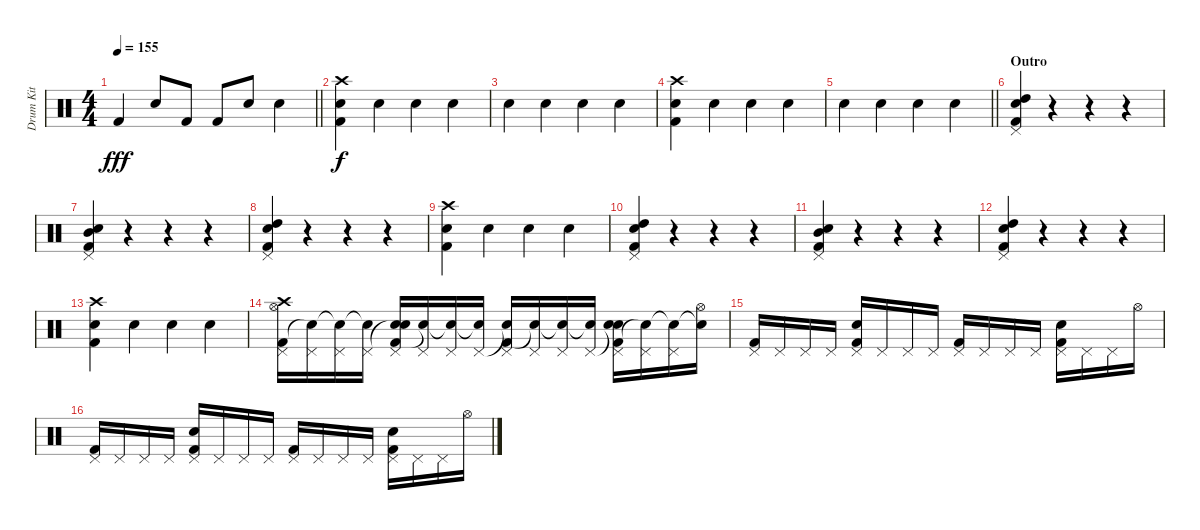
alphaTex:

\track ("Drum Kit" "Drum Kit") {instrument percussion}
\staff {score}
\articulation defaults
\ts (4 4)
\tempo 155
\clef neutral
\barLineRight lightlight
\ks c "Kick (hit) 2".4{dy fff} "Snare (hit) 2".8 "Kick (hit) 2".8 "Kick (hit) 2".8 "Snare (hit) 2".8 "Snare (hit) 2".4
|
("Crash high (hit)" "Kick (hit) 2" "Snare (hit) 2").4{dy f} "Snare (hit) 2".4 "Snare (hit) 2".4 "Snare (hit) 2".4 |
"Snare (hit) 2".4 "Snare (hit) 2".4 "Snare (hit) 2".4 "Snare (hit) 2".4 |
("Crash high (hit)" "Kick (hit) 2" "Snare (hit) 2").4 "Snare (hit) 2".4 "Snare (hit) 2".4 "Snare (hit) 2".4 |
\barLineRight lightlight "Snare (hit) 2".4 "Snare (hit) 2".4 "Snare (hit) 2".4 "Snare (hit) 2".4
|
\section ("" "Outro")
("Kick (hit) 2" "Electric Snare (hit)" "High Tom (hit)" "Pedal Hi-Hat (hit)").4 r.4 r.4 r.4 |
("Kick (hit) 2" "Electric Snare (hit)" "Mid Tom (hit)" "Pedal Hi-Hat (hit)").4 r.4 r.4 r.4 |
("Kick (hit) 2" "Electric Snare (hit)" "High Tom (hit)" "Pedal Hi-Hat (hit)").4 r.4 r.4 r.4 |
("Crash high (hit)" "Kick (hit) 2" "Snare (hit) 2").4 "Snare (hit) 2".4 "Snare (hit) 2".4 "Snare (hit) 2".4 |
("Kick (hit) 2" "Electric Snare (hit)" "High Tom (hit)" "Pedal Hi-Hat (hit)").4 r.4 r.4 r.4 |
("Kick (hit) 2" "Electric Snare (hit)" "Mid Tom (hit)" "Pedal Hi-Hat (hit)").4 r.4 r.4 r.4 |
("Kick (hit) 2" "Electric Snare (hit)" "High Tom (hit)" "Pedal Hi-Hat (hit)").4 r.4 r.4 r.4 |
("Crash high (hit)" "Kick (hit) 2" "Snare (hit) 2").4 "Snare (hit) 2".4 "Snare (hit) 2".4 "Snare (hit) 2".4 |
("Kick (hit) 2" "Crash high (hit)" "Hi-Hat (open)" "Pedal Hi-Hat (hit)").16 ("Snare (hit)"{t} "Pedal Hi-Hat (hit)").16 ("Snare (hit)"{t} "Pedal Hi-Hat (hit)").16 ("Snare (hit)"{t} "Pedal Hi-Hat (hit)").16 ("Kick (hit) 2" "Snare (hit)"{t} "Electric Snare (hit)" "Pedal Hi-Hat (hit)").16 ("Snare (hit)"{t} "Pedal Hi-Hat (hit)").16 ("Snare (hit)"{t} "Pedal Hi-Hat (hit)").16 ("Snare (hit)"{t} "Pedal Hi-Hat (hit)").16 ("Kick (hit) 2" "Snare (hit)"{t} "Pedal Hi-Hat (hit)").16 ("Snare (hit)"{t} "Pedal Hi-Hat (hit)").16 ("Snare (hit)"{t} "Pedal Hi-Hat (hit)").16 ("Snare (hit)"{t} "Pedal Hi-Hat (hit)").16 ("Kick (hit) 2" "Snare (hit)"{t} "Electric Snare (hit)" "Pedal Hi-Hat (hit)").16 ("Snare (hit)"{t} "Pedal Hi-Hat (hit)").16 ("Snare (hit)"{t} "Pedal Hi-Hat (hit)").16 ("Snare (hit)"{t} "Hi-Hat (open)").16 |
("Kick (hit) 2" "Pedal Hi-Hat (hit)").16 "Pedal Hi-Hat (hit)".16 "Pedal Hi-Hat (hit)".16 "Pedal Hi-Hat (hit)".16 ("Kick (hit) 2" "Electric Snare (hit)" "Pedal Hi-Hat (hit)").16 "Pedal Hi-Hat (hit)".16 "Pedal Hi-Hat (hit)".16 "Pedal Hi-Hat (hit)".16 ("Kick (hit) 2" "Pedal Hi-Hat (hit)").16 "Pedal Hi-Hat (hit)".16 "Pedal Hi-Hat (hit)".16 "Pedal Hi-Hat (hit)".16 ("Kick (hit) 2" "Electric Snare (hit)" "Pedal Hi-Hat (hit)").16 "Pedal Hi-Hat (hit)".16 "Pedal Hi-Hat (hit)".16 "Hi-Hat (open)".16 |
("Kick (hit) 2" "Pedal Hi-Hat (hit)").16 "Pedal Hi-Hat (hit)".16 "Pedal Hi-Hat (hit)".16 "Pedal Hi-Hat (hit)".16 ("Kick (hit) 2" "Electric Snare (hit)" "Pedal Hi-Hat (hit)").16 "Pedal Hi-Hat (hit)".16 "Pedal Hi-Hat (hit)".16 "Pedal Hi-Hat (hit)".16 ("Kick (hit) 2" "Pedal Hi-Hat (hit)").16 "Pedal Hi-Hat (hit)".16 "Pedal Hi-Hat (hit)".16 "Pedal Hi-Hat (hit)".16 ("Kick (hit) 2" "Electric Snare (hit)" "Pedal Hi-Hat (hit)").16 "Pedal Hi-Hat (hit)".16 "Pedal Hi-Hat (hit)".16 "Hi-Hat (open)".16
